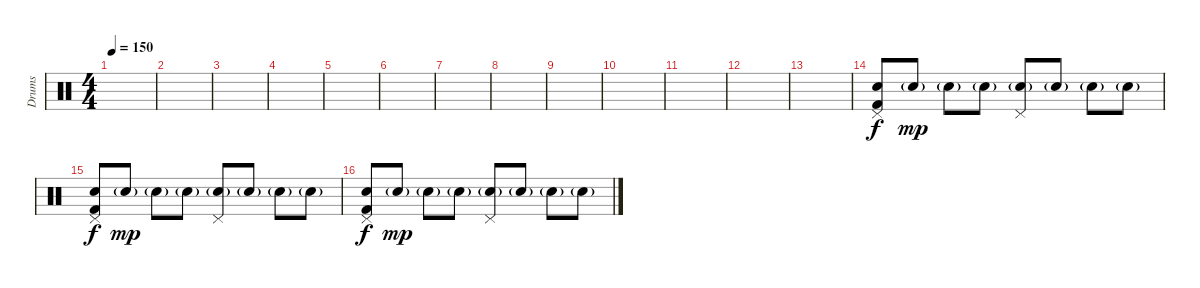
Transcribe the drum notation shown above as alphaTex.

\track ("Drums" "Drums") {instrument percussion}
\staff {score}
\articulation defaults
\ts (4 4)
\tempo 150
\clef neutral
\ks c
|
|
|
|
|
|
|
|
|
|
|
|
|
("Electric Snare (hit)" "Kick (hit) 2" "Pedal Hi-Hat (hit)").8 "Electric Snare (hit)"{g}.8{dy mp} "Electric Snare (hit)"{g}.8 "Electric Snare (hit)"{g}.8 ("Electric Snare (hit)"{g} "Pedal Hi-Hat (hit)").8 "Electric Snare (hit)"{g}.8 "Electric Snare (hit)"{g}.8 "Electric Snare (hit)"{g}.8 |
("Electric Snare (hit)" "Kick (hit) 2" "Pedal Hi-Hat (hit)").8{dy f} "Electric Snare (hit)"{g}.8{dy mp} "Electric Snare (hit)"{g}.8 "Electric Snare (hit)"{g}.8 ("Electric Snare (hit)"{g} "Pedal Hi-Hat (hit)").8 "Electric Snare (hit)"{g}.8 "Electric Snare (hit)"{g}.8 "Electric Snare (hit)"{g}.8 |
("Electric Snare (hit)" "Kick (hit) 2" "Pedal Hi-Hat (hit)").8{dy f} "Electric Snare (hit)"{g}.8{dy mp} "Electric Snare (hit)"{g}.8 "Electric Snare (hit)"{g}.8 ("Electric Snare (hit)"{g} "Pedal Hi-Hat (hit)").8 "Electric Snare (hit)"{g}.8 "Electric Snare (hit)"{g}.8 "Electric Snare (hit)"{g}.8
